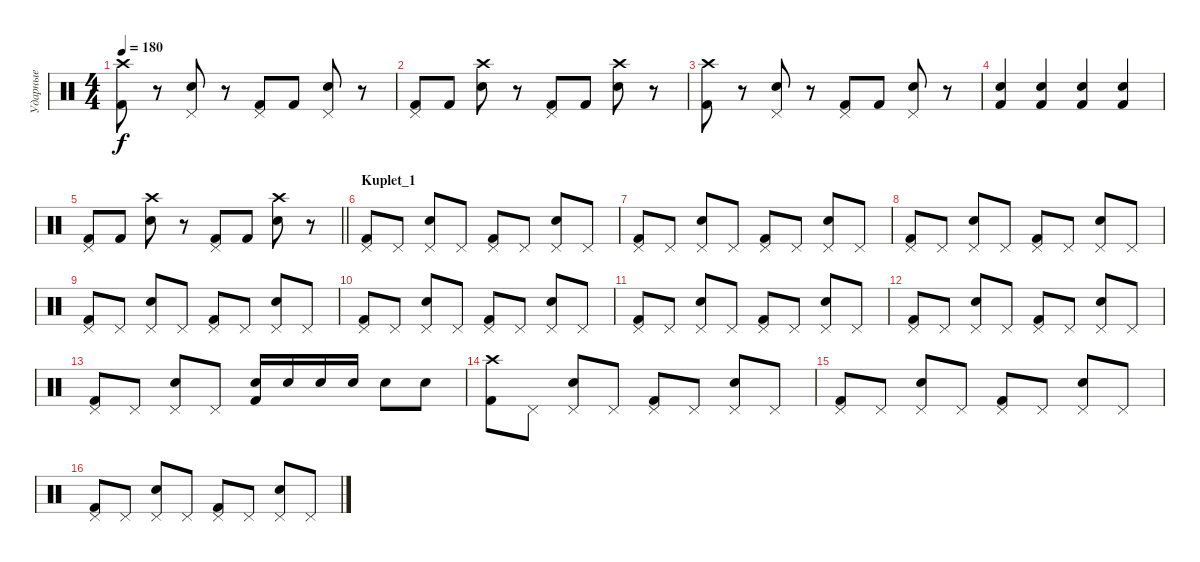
\track ("Ударные" "Ударные") {instrument percussion}
\staff {score}
\articulation defaults
\ts (4 4)
\tempo 180
\clef neutral
\ks c
("Crash high (hit)" "Kick (hit) 2").8{dy f} r.8 ("Pedal Hi-Hat (hit)" "Electric Snare (hit)").8 r.8 ("Pedal Hi-Hat (hit)" "Kick (hit) 2").8 "Kick (hit) 2".8 ("Pedal Hi-Hat (hit)" "Electric Snare (hit)").8 r.8 |
("Pedal Hi-Hat (hit)" "Kick (hit) 2").8 "Kick (hit) 2".8 ("Crash high (hit)" "Electric Snare (hit)").8 r.8 ("Pedal Hi-Hat (hit)" "Kick (hit) 2").8 "Kick (hit) 2".8 ("Crash high (hit)" "Electric Snare (hit)").8 r.8 |
("Crash high (hit)" "Kick (hit) 2").8 r.8 ("Pedal Hi-Hat (hit)" "Electric Snare (hit)").8 r.8 ("Pedal Hi-Hat (hit)" "Kick (hit) 2").8 "Kick (hit) 2".8 ("Pedal Hi-Hat (hit)" "Electric Snare (hit)").8 r.8 |
("Electric Snare (hit)" "Kick (hit) 2").4 ("Electric Snare (hit)" "Kick (hit) 2").4 ("Electric Snare (hit)" "Kick (hit) 2").4 ("Electric Snare (hit)" "Kick (hit) 2").4 |
\barLineRight lightlight
("Pedal Hi-Hat (hit)" "Kick (hit) 2").8 "Kick (hit) 2".8 ("Crash high (hit)" "Electric Snare (hit)").8 r.8 ("Pedal Hi-Hat (hit)" "Kick (hit) 2").8 "Kick (hit) 2".8 ("Crash high (hit)" "Electric Snare (hit)").8 r.8 |
\section ("" "Kuplet_1")
("Pedal Hi-Hat (hit)" "Kick (hit) 2").8 "Pedal Hi-Hat (hit)".8 ("Pedal Hi-Hat (hit)" "Electric Snare (hit)").8 "Pedal Hi-Hat (hit)".8 ("Pedal Hi-Hat (hit)" "Kick (hit) 2").8 "Pedal Hi-Hat (hit)".8 ("Pedal Hi-Hat (hit)" "Electric Snare (hit)").8 "Pedal Hi-Hat (hit)".8 |
("Pedal Hi-Hat (hit)" "Kick (hit) 2").8 "Pedal Hi-Hat (hit)".8 ("Pedal Hi-Hat (hit)" "Electric Snare (hit)").8 "Pedal Hi-Hat (hit)".8 ("Pedal Hi-Hat (hit)" "Kick (hit) 2").8 "Pedal Hi-Hat (hit)".8 ("Pedal Hi-Hat (hit)" "Electric Snare (hit)").8 "Pedal Hi-Hat (hit)".8 |
("Pedal Hi-Hat (hit)" "Kick (hit) 2").8 "Pedal Hi-Hat (hit)".8 ("Pedal Hi-Hat (hit)" "Electric Snare (hit)").8 "Pedal Hi-Hat (hit)".8 ("Pedal Hi-Hat (hit)" "Kick (hit) 2").8 "Pedal Hi-Hat (hit)".8 ("Pedal Hi-Hat (hit)" "Electric Snare (hit)").8 "Pedal Hi-Hat (hit)".8 |
("Pedal Hi-Hat (hit)" "Kick (hit) 2").8 "Pedal Hi-Hat (hit)".8 ("Pedal Hi-Hat (hit)" "Electric Snare (hit)").8 "Pedal Hi-Hat (hit)".8 ("Pedal Hi-Hat (hit)" "Kick (hit) 2").8 "Pedal Hi-Hat (hit)".8 ("Pedal Hi-Hat (hit)" "Electric Snare (hit)").8 "Pedal Hi-Hat (hit)".8 |
("Pedal Hi-Hat (hit)" "Kick (hit) 2").8 "Pedal Hi-Hat (hit)".8 ("Pedal Hi-Hat (hit)" "Electric Snare (hit)").8 "Pedal Hi-Hat (hit)".8 ("Pedal Hi-Hat (hit)" "Kick (hit) 2").8 "Pedal Hi-Hat (hit)".8 ("Pedal Hi-Hat (hit)" "Electric Snare (hit)").8 "Pedal Hi-Hat (hit)".8 |
("Pedal Hi-Hat (hit)" "Kick (hit) 2").8 "Pedal Hi-Hat (hit)".8 ("Pedal Hi-Hat (hit)" "Electric Snare (hit)").8 "Pedal Hi-Hat (hit)".8 ("Pedal Hi-Hat (hit)" "Kick (hit) 2").8 "Pedal Hi-Hat (hit)".8 ("Pedal Hi-Hat (hit)" "Electric Snare (hit)").8 "Pedal Hi-Hat (hit)".8 |
("Pedal Hi-Hat (hit)" "Kick (hit) 2").8 "Pedal Hi-Hat (hit)".8 ("Pedal Hi-Hat (hit)" "Electric Snare (hit)").8 "Pedal Hi-Hat (hit)".8 ("Pedal Hi-Hat (hit)" "Kick (hit) 2").8 "Pedal Hi-Hat (hit)".8 ("Pedal Hi-Hat (hit)" "Electric Snare (hit)").8 "Pedal Hi-Hat (hit)".8 |
("Pedal Hi-Hat (hit)" "Kick (hit) 2").8 "Pedal Hi-Hat (hit)".8 ("Pedal Hi-Hat (hit)" "Electric Snare (hit)").8 "Pedal Hi-Hat (hit)".8 ("Electric Snare (hit)" "Kick (hit) 2").16 "Electric Snare (hit)".16 "Electric Snare (hit)".16 "Electric Snare (hit)".16 "Electric Snare (hit)".8 "Electric Snare (hit)".8 |
("Crash high (hit)" "Kick (hit) 2").8 "Pedal Hi-Hat (hit)".8 ("Pedal Hi-Hat (hit)" "Electric Snare (hit)").8 "Pedal Hi-Hat (hit)".8 ("Pedal Hi-Hat (hit)" "Kick (hit) 2").8 "Pedal Hi-Hat (hit)".8 ("Pedal Hi-Hat (hit)" "Electric Snare (hit)").8 "Pedal Hi-Hat (hit)".8 |
("Pedal Hi-Hat (hit)" "Kick (hit) 2").8 "Pedal Hi-Hat (hit)".8 ("Pedal Hi-Hat (hit)" "Electric Snare (hit)").8 "Pedal Hi-Hat (hit)".8 ("Pedal Hi-Hat (hit)" "Kick (hit) 2").8 "Pedal Hi-Hat (hit)".8 ("Pedal Hi-Hat (hit)" "Electric Snare (hit)").8 "Pedal Hi-Hat (hit)".8 |
("Pedal Hi-Hat (hit)" "Kick (hit) 2").8 "Pedal Hi-Hat (hit)".8 ("Pedal Hi-Hat (hit)" "Electric Snare (hit)").8 "Pedal Hi-Hat (hit)".8 ("Pedal Hi-Hat (hit)" "Kick (hit) 2").8 "Pedal Hi-Hat (hit)".8 ("Pedal Hi-Hat (hit)" "Electric Snare (hit)").8 "Pedal Hi-Hat (hit)".8
